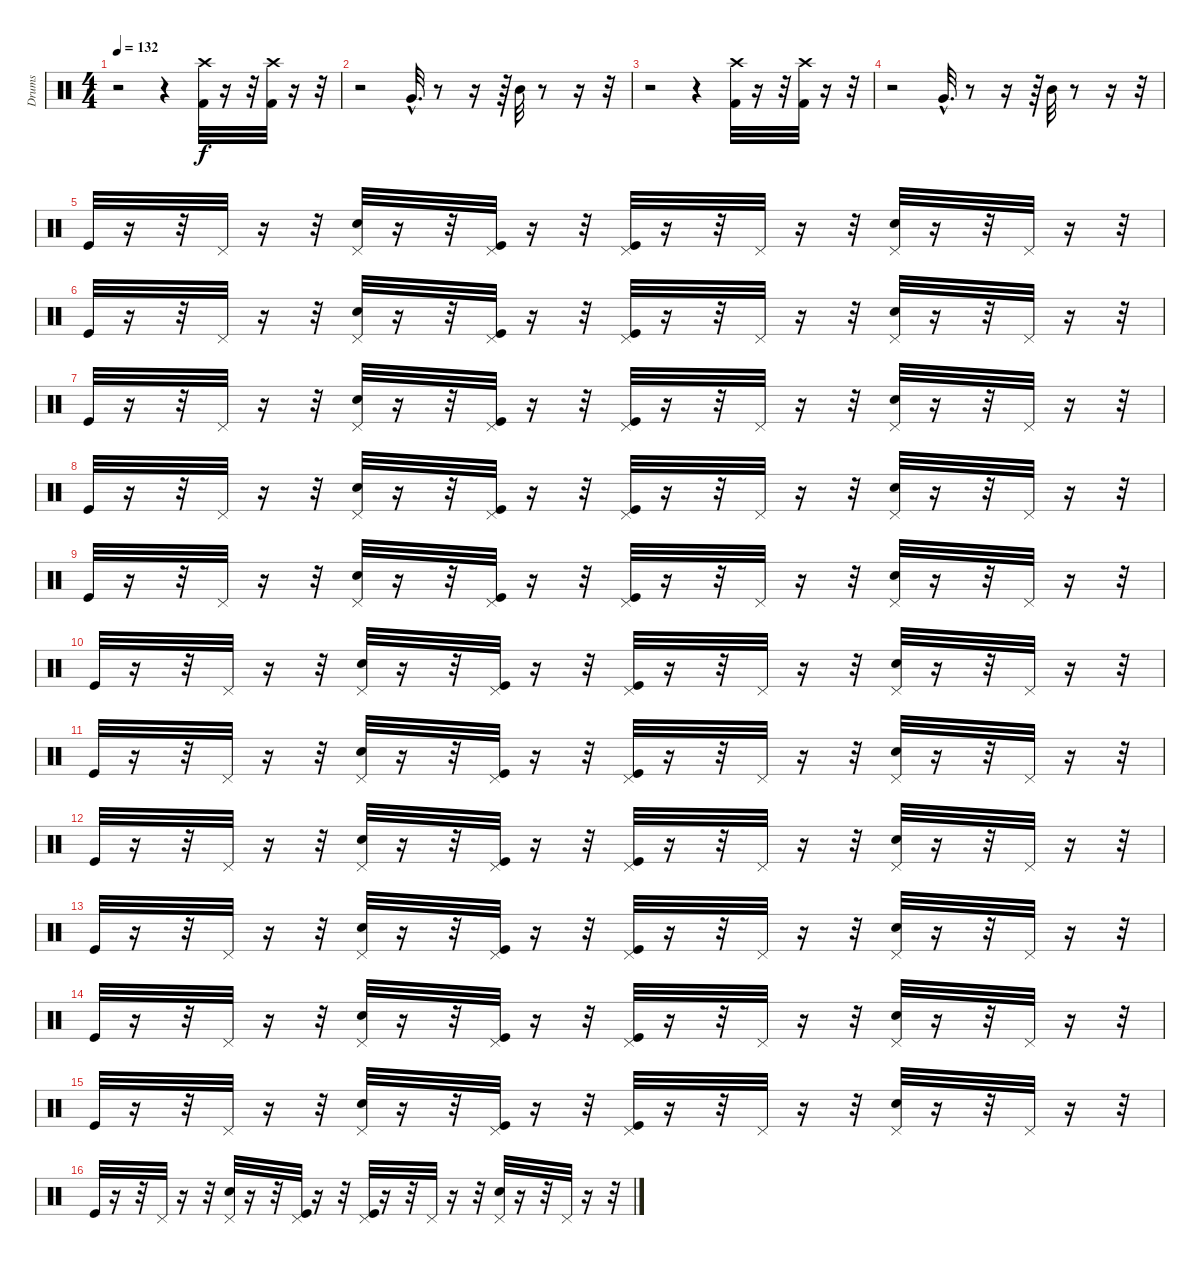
\track ("Drums" "Drums") {instrument percussion}
\staff {score}
\articulation defaults
\ts (4 4)
\tempo 132
\clef neutral
\ks c
r.2{dy f} r.4 ("Kick (hit) 2" "Crash high (hit)").32 r.16 r.32 ("Crash high (hit)" "Kick (hit) 2").32 r.16 r.32 |
r.2 "Very Low Tom (hit)"{hac}.32{d} r.8 r.16 r.64 "Mid Tom (hit)".32 r.8 r.16 r.32 |
r.2 r.4 ("Kick (hit) 2" "Crash high (hit)").32 r.16 r.32 ("Crash high (hit)" "Kick (hit) 2").32 r.16 r.32 |
r.2 "Very Low Tom (hit)"{hac}.32{d} r.8 r.16 r.64 "Mid Tom (hit)".32 r.8 r.16 r.32 |
"Kick (hit)".32 r.16 r.32 "Pedal Hi-Hat (hit)".32 r.16 r.32 ("Electric Snare (hit)" "Pedal Hi-Hat (hit)").32 r.16 r.32 ("Kick (hit)" "Pedal Hi-Hat (hit)").32 r.16 r.32 ("Kick (hit)" "Pedal Hi-Hat (hit)").32 r.16 r.32 "Pedal Hi-Hat (hit)".32 r.16 r.32 ("Electric Snare (hit)" "Pedal Hi-Hat (hit)").32 r.16 r.32 "Pedal Hi-Hat (hit)".32 r.16 r.32 |
"Kick (hit)".32 r.16 r.32 "Pedal Hi-Hat (hit)".32 r.16 r.32 ("Electric Snare (hit)" "Pedal Hi-Hat (hit)").32 r.16 r.32 ("Kick (hit)" "Pedal Hi-Hat (hit)").32 r.16 r.32 ("Kick (hit)" "Pedal Hi-Hat (hit)").32 r.16 r.32 "Pedal Hi-Hat (hit)".32 r.16 r.32 ("Electric Snare (hit)" "Pedal Hi-Hat (hit)").32 r.16 r.32 "Pedal Hi-Hat (hit)".32 r.16 r.32 |
"Kick (hit)".32 r.16 r.32 "Pedal Hi-Hat (hit)".32 r.16 r.32 ("Electric Snare (hit)" "Pedal Hi-Hat (hit)").32 r.16 r.32 ("Kick (hit)" "Pedal Hi-Hat (hit)").32 r.16 r.32 ("Kick (hit)" "Pedal Hi-Hat (hit)").32 r.16 r.32 "Pedal Hi-Hat (hit)".32 r.16 r.32 ("Electric Snare (hit)" "Pedal Hi-Hat (hit)").32 r.16 r.32 "Pedal Hi-Hat (hit)".32 r.16 r.32 |
"Kick (hit)".32 r.16 r.32 "Pedal Hi-Hat (hit)".32 r.16 r.32 ("Electric Snare (hit)" "Pedal Hi-Hat (hit)").32 r.16 r.32 ("Kick (hit)" "Pedal Hi-Hat (hit)").32 r.16 r.32 ("Kick (hit)" "Pedal Hi-Hat (hit)").32 r.16 r.32 "Pedal Hi-Hat (hit)".32 r.16 r.32 ("Electric Snare (hit)" "Pedal Hi-Hat (hit)").32 r.16 r.32 "Pedal Hi-Hat (hit)".32 r.16 r.32 |
"Kick (hit)".32 r.16 r.32 "Pedal Hi-Hat (hit)".32 r.16 r.32 ("Electric Snare (hit)" "Pedal Hi-Hat (hit)").32 r.16 r.32 ("Kick (hit)" "Pedal Hi-Hat (hit)").32 r.16 r.32 ("Kick (hit)" "Pedal Hi-Hat (hit)").32 r.16 r.32 "Pedal Hi-Hat (hit)".32 r.16 r.32 ("Electric Snare (hit)" "Pedal Hi-Hat (hit)").32 r.16 r.32 "Pedal Hi-Hat (hit)".32 r.16 r.32 |
"Kick (hit)".32 r.16 r.32 "Pedal Hi-Hat (hit)".32 r.16 r.32 ("Electric Snare (hit)" "Pedal Hi-Hat (hit)").32 r.16 r.32 ("Kick (hit)" "Pedal Hi-Hat (hit)").32 r.16 r.32 ("Kick (hit)" "Pedal Hi-Hat (hit)").32 r.16 r.32 "Pedal Hi-Hat (hit)".32 r.16 r.32 ("Electric Snare (hit)" "Pedal Hi-Hat (hit)").32 r.16 r.32 "Pedal Hi-Hat (hit)".32 r.16 r.32 |
"Kick (hit)".32 r.16 r.32 "Pedal Hi-Hat (hit)".32 r.16 r.32 ("Electric Snare (hit)" "Pedal Hi-Hat (hit)").32 r.16 r.32 ("Kick (hit)" "Pedal Hi-Hat (hit)").32 r.16 r.32 ("Kick (hit)" "Pedal Hi-Hat (hit)").32 r.16 r.32 "Pedal Hi-Hat (hit)".32 r.16 r.32 ("Electric Snare (hit)" "Pedal Hi-Hat (hit)").32 r.16 r.32 "Pedal Hi-Hat (hit)".32 r.16 r.32 |
"Kick (hit)".32 r.16 r.32 "Pedal Hi-Hat (hit)".32 r.16 r.32 ("Electric Snare (hit)" "Pedal Hi-Hat (hit)").32 r.16 r.32 ("Kick (hit)" "Pedal Hi-Hat (hit)").32 r.16 r.32 ("Kick (hit)" "Pedal Hi-Hat (hit)").32 r.16 r.32 "Pedal Hi-Hat (hit)".32 r.16 r.32 ("Electric Snare (hit)" "Pedal Hi-Hat (hit)").32 r.16 r.32 "Pedal Hi-Hat (hit)".32 r.16 r.32 |
"Kick (hit)".32 r.16 r.32 "Pedal Hi-Hat (hit)".32 r.16 r.32 ("Electric Snare (hit)" "Pedal Hi-Hat (hit)").32 r.16 r.32 ("Kick (hit)" "Pedal Hi-Hat (hit)").32 r.16 r.32 ("Kick (hit)" "Pedal Hi-Hat (hit)").32 r.16 r.32 "Pedal Hi-Hat (hit)".32 r.16 r.32 ("Electric Snare (hit)" "Pedal Hi-Hat (hit)").32 r.16 r.32 "Pedal Hi-Hat (hit)".32 r.16 r.32 |
"Kick (hit)".32 r.16 r.32 "Pedal Hi-Hat (hit)".32 r.16 r.32 ("Electric Snare (hit)" "Pedal Hi-Hat (hit)").32 r.16 r.32 ("Kick (hit)" "Pedal Hi-Hat (hit)").32 r.16 r.32 ("Kick (hit)" "Pedal Hi-Hat (hit)").32 r.16 r.32 "Pedal Hi-Hat (hit)".32 r.16 r.32 ("Electric Snare (hit)" "Pedal Hi-Hat (hit)").32 r.16 r.32 "Pedal Hi-Hat (hit)".32 r.16 r.32 |
"Kick (hit)".32 r.16 r.32 "Pedal Hi-Hat (hit)".32 r.16 r.32 ("Electric Snare (hit)" "Pedal Hi-Hat (hit)").32 r.16 r.32 ("Kick (hit)" "Pedal Hi-Hat (hit)").32 r.16 r.32 ("Kick (hit)" "Pedal Hi-Hat (hit)").32 r.16 r.32 "Pedal Hi-Hat (hit)".32 r.16 r.32 ("Electric Snare (hit)" "Pedal Hi-Hat (hit)").32 r.16 r.32 "Pedal Hi-Hat (hit)".32 r.16 r.32 |
"Kick (hit)".32 r.16 r.32 "Pedal Hi-Hat (hit)".32 r.16 r.32 ("Electric Snare (hit)" "Pedal Hi-Hat (hit)").32 r.16 r.32 ("Kick (hit)" "Pedal Hi-Hat (hit)").32 r.16 r.32 ("Kick (hit)" "Pedal Hi-Hat (hit)").32 r.16 r.32 "Pedal Hi-Hat (hit)".32 r.16 r.32 ("Electric Snare (hit)" "Pedal Hi-Hat (hit)").32 r.16 r.32 "Pedal Hi-Hat (hit)".32 r.16 r.32
